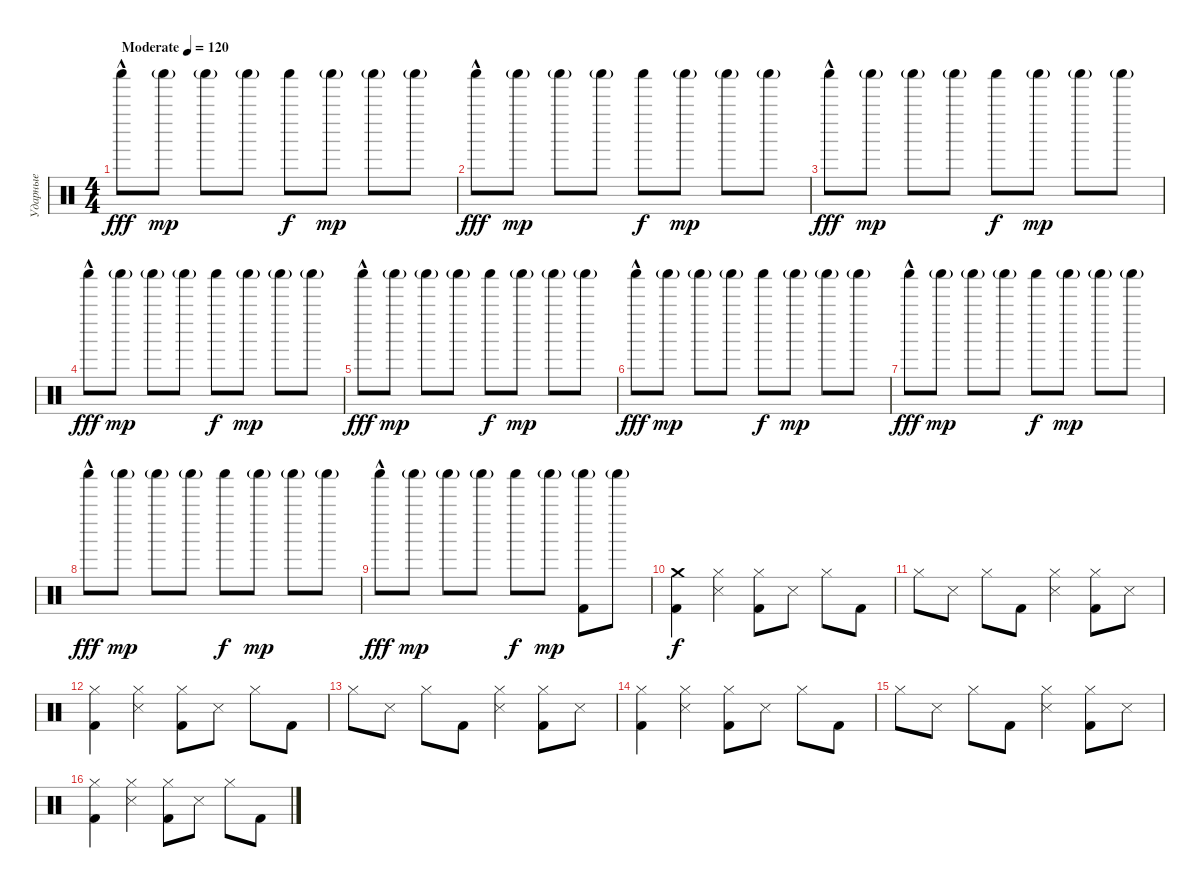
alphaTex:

\track ("Ударные" "Ударные") {instrument percussion}
\staff {score}
\articulation defaults
\ts (4 4)
\tempo (120 "Moderate")
\clef neutral
\ks c "Shaker (hit)"{hac}.8{dy fff} "Shaker (hit)"{g}.8{dy mp} "Shaker (hit)"{g}.8 "Shaker (hit)"{g}.8 "Shaker (hit)".8{dy f} "Shaker (hit)"{g}.8{dy mp} "Shaker (hit)"{g}.8 "Shaker (hit)"{g}.8
|
"Shaker (hit)"{hac}.8{dy fff} "Shaker (hit)"{g}.8{dy mp} "Shaker (hit)"{g}.8 "Shaker (hit)"{g}.8 "Shaker (hit)".8{dy f} "Shaker (hit)"{g}.8{dy mp} "Shaker (hit)"{g}.8 "Shaker (hit)"{g}.8 |
"Shaker (hit)"{hac}.8{dy fff} "Shaker (hit)"{g}.8{dy mp} "Shaker (hit)"{g}.8 "Shaker (hit)"{g}.8 "Shaker (hit)".8{dy f} "Shaker (hit)"{g}.8{dy mp} "Shaker (hit)"{g}.8 "Shaker (hit)"{g}.8 |
"Shaker (hit)"{hac}.8{dy fff} "Shaker (hit)"{g}.8{dy mp} "Shaker (hit)"{g}.8 "Shaker (hit)"{g}.8 "Shaker (hit)".8{dy f} "Shaker (hit)"{g}.8{dy mp} "Shaker (hit)"{g}.8 "Shaker (hit)"{g}.8 |
"Shaker (hit)"{hac}.8{dy fff} "Shaker (hit)"{g}.8{dy mp} "Shaker (hit)"{g}.8 "Shaker (hit)"{g}.8 "Shaker (hit)".8{dy f} "Shaker (hit)"{g}.8{dy mp} "Shaker (hit)"{g}.8 "Shaker (hit)"{g}.8 |
"Shaker (hit)"{hac}.8{dy fff} "Shaker (hit)"{g}.8{dy mp} "Shaker (hit)"{g}.8 "Shaker (hit)"{g}.8 "Shaker (hit)".8{dy f} "Shaker (hit)"{g}.8{dy mp} "Shaker (hit)"{g}.8 "Shaker (hit)"{g}.8 |
"Shaker (hit)"{hac}.8{dy fff} "Shaker (hit)"{g}.8{dy mp} "Shaker (hit)"{g}.8 "Shaker (hit)"{g}.8 "Shaker (hit)".8{dy f} "Shaker (hit)"{g}.8{dy mp} "Shaker (hit)"{g}.8 "Shaker (hit)"{g}.8 |
"Shaker (hit)"{hac}.8{dy fff} "Shaker (hit)"{g}.8{dy mp} "Shaker (hit)"{g}.8 "Shaker (hit)"{g}.8 "Shaker (hit)".8{dy f} "Shaker (hit)"{g}.8{dy mp} "Shaker (hit)"{g}.8 "Shaker (hit)"{g}.8 |
"Shaker (hit)"{hac}.8{dy fff} "Shaker (hit)"{g}.8{dy mp} "Shaker (hit)"{g}.8 "Shaker (hit)"{g}.8 "Shaker (hit)".8{dy f} "Shaker (hit)"{g}.8{dy mp} ("Shaker (hit)"{g} "Kick (hit) 2").8 "Shaker (hit)"{g}.8 |
("Crash medium (hit)" "Kick (hit) 2").4{dy f} ("Hi-Hat (closed)" "Metronome (hit)").4 ("Hi-Hat (closed)" "Kick (hit) 2").8 "Metronome (hit)".8 "Hi-Hat (closed)".8 "Kick (hit) 2".8 |
"Hi-Hat (closed)".8 "Metronome (hit)".8 "Hi-Hat (closed)".8 "Kick (hit) 2".8 ("Hi-Hat (closed)" "Metronome (hit)").4 ("Hi-Hat (closed)" "Kick (hit) 2").8 "Metronome (hit)".8 |
("Hi-Hat (closed)" "Kick (hit) 2").4 ("Hi-Hat (closed)" "Metronome (hit)").4 ("Hi-Hat (closed)" "Kick (hit) 2").8 "Metronome (hit)".8 "Hi-Hat (closed)".8 "Kick (hit) 2".8 |
"Hi-Hat (closed)".8 "Metronome (hit)".8 "Hi-Hat (closed)".8 "Kick (hit) 2".8 ("Hi-Hat (closed)" "Metronome (hit)").4 ("Hi-Hat (closed)" "Kick (hit) 2").8 "Metronome (hit)".8 |
("Hi-Hat (closed)" "Kick (hit) 2").4 ("Hi-Hat (closed)" "Metronome (hit)").4 ("Hi-Hat (closed)" "Kick (hit) 2").8 "Metronome (hit)".8 "Hi-Hat (closed)".8 "Kick (hit) 2".8 |
"Hi-Hat (closed)".8 "Metronome (hit)".8 "Hi-Hat (closed)".8 "Kick (hit) 2".8 ("Hi-Hat (closed)" "Metronome (hit)").4 ("Hi-Hat (closed)" "Kick (hit) 2").8 "Metronome (hit)".8 |
("Hi-Hat (closed)" "Kick (hit) 2").4 ("Hi-Hat (closed)" "Metronome (hit)").4 ("Hi-Hat (closed)" "Kick (hit) 2").8 "Metronome (hit)".8 "Hi-Hat (closed)".8 "Kick (hit) 2".8
